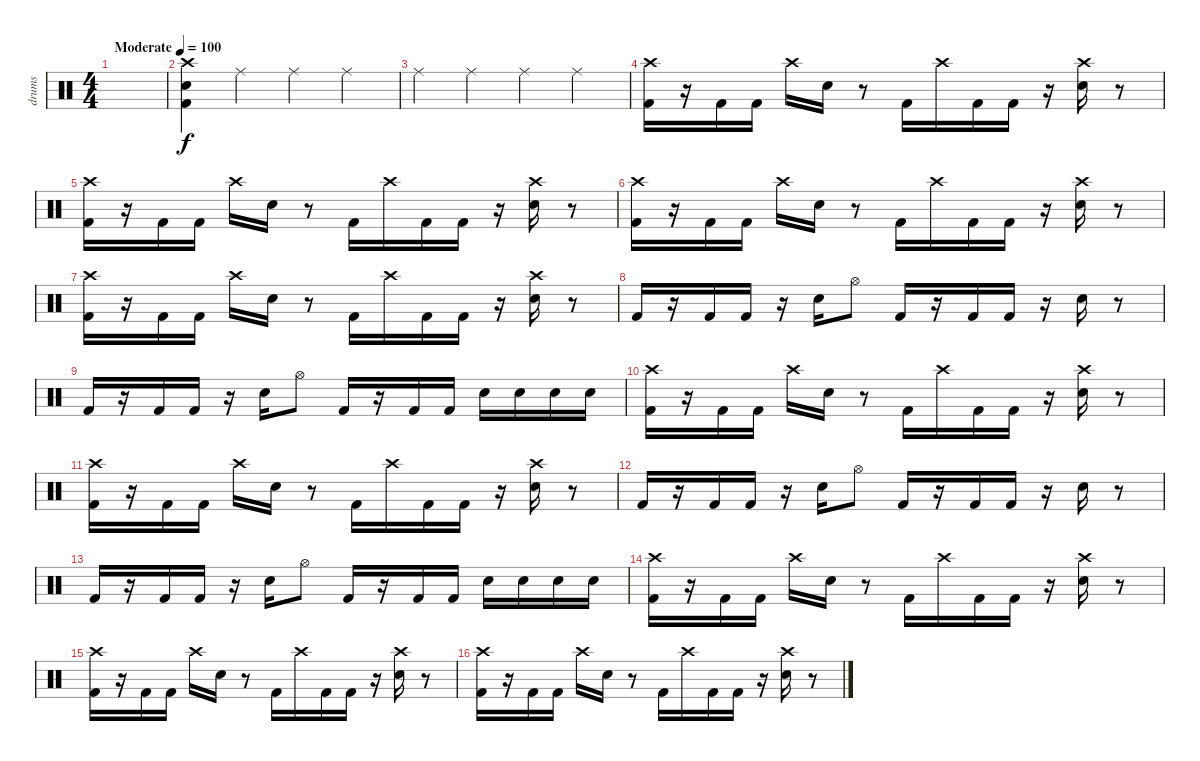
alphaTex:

\track ("drums" "drums") {instrument percussion}
\staff {score}
\articulation defaults
\ts (4 4)
\tempo (100 "Moderate")
\clef neutral
\ks c
|
("Crash high (hit)" "Electric Snare (hit)" "Kick (hit) 2").4 "Ride (middle)".4 "Ride (middle)".4 "Ride (middle)".4 |
"Ride (middle)".4 "Ride (middle)".4 "Ride (middle)".4 "Ride (middle)".4 |
("Crash high (hit)" "Kick (hit) 2").16 r.16 "Kick (hit) 2".16 "Kick (hit) 2".16 "Crash high (hit)".16 "Electric Snare (hit)".16 r.8 "Kick (hit) 2".16 "Crash high (hit)".16 "Kick (hit) 2".16 "Kick (hit) 2".16 r.16 ("Crash high (hit)" "Electric Snare (hit)").16 r.8 |
("Crash high (hit)" "Kick (hit) 2").16 r.16 "Kick (hit) 2".16 "Kick (hit) 2".16 "Crash high (hit)".16 "Electric Snare (hit)".16 r.8 "Kick (hit) 2".16 "Crash high (hit)".16 "Kick (hit) 2".16 "Kick (hit) 2".16 r.16 ("Crash high (hit)" "Electric Snare (hit)").16 r.8 |
("Crash high (hit)" "Kick (hit) 2").16 r.16 "Kick (hit) 2".16 "Kick (hit) 2".16 "Crash high (hit)".16 "Electric Snare (hit)".16 r.8 "Kick (hit) 2".16 "Crash high (hit)".16 "Kick (hit) 2".16 "Kick (hit) 2".16 r.16 ("Crash high (hit)" "Electric Snare (hit)").16 r.8 |
("Crash high (hit)" "Kick (hit) 2").16 r.16 "Kick (hit) 2".16 "Kick (hit) 2".16 "Crash high (hit)".16 "Electric Snare (hit)".16 r.8 "Kick (hit) 2".16 "Crash high (hit)".16 "Kick (hit) 2".16 "Kick (hit) 2".16 r.16 ("Crash high (hit)" "Electric Snare (hit)").16 r.8 |
"Kick (hit) 2".16 r.16 "Kick (hit) 2".16 "Kick (hit) 2".16 r.16 "Electric Snare (hit)".16 "Hi-Hat (open)".8 "Kick (hit) 2".16 r.16 "Kick (hit) 2".16 "Kick (hit) 2".16 r.16 "Electric Snare (hit)".16 r.8 |
"Kick (hit) 2".16 r.16 "Kick (hit) 2".16 "Kick (hit) 2".16 r.16 "Electric Snare (hit)".16 "Hi-Hat (open)".8 "Kick (hit) 2".16 r.16 "Kick (hit) 2".16 "Kick (hit) 2".16 "Electric Snare (hit)".16 "Electric Snare (hit)".16 "Electric Snare (hit)".16 "Electric Snare (hit)".16 |
("Crash high (hit)" "Kick (hit) 2").16 r.16 "Kick (hit) 2".16 "Kick (hit) 2".16 "Crash high (hit)".16 "Electric Snare (hit)".16 r.8 "Kick (hit) 2".16 "Crash high (hit)".16 "Kick (hit) 2".16 "Kick (hit) 2".16 r.16 ("Crash high (hit)" "Electric Snare (hit)").16 r.8 |
("Crash high (hit)" "Kick (hit) 2").16 r.16 "Kick (hit) 2".16 "Kick (hit) 2".16 "Crash high (hit)".16 "Electric Snare (hit)".16 r.8 "Kick (hit) 2".16 "Crash high (hit)".16 "Kick (hit) 2".16 "Kick (hit) 2".16 r.16 ("Crash high (hit)" "Electric Snare (hit)").16 r.8 |
"Kick (hit) 2".16 r.16 "Kick (hit) 2".16 "Kick (hit) 2".16 r.16 "Electric Snare (hit)".16 "Hi-Hat (open)".8 "Kick (hit) 2".16 r.16 "Kick (hit) 2".16 "Kick (hit) 2".16 r.16 "Electric Snare (hit)".16 r.8 |
"Kick (hit) 2".16 r.16 "Kick (hit) 2".16 "Kick (hit) 2".16 r.16 "Electric Snare (hit)".16 "Hi-Hat (open)".8 "Kick (hit) 2".16 r.16 "Kick (hit) 2".16 "Kick (hit) 2".16 "Electric Snare (hit)".16 "Electric Snare (hit)".16 "Electric Snare (hit)".16 "Electric Snare (hit)".16 |
("Crash high (hit)" "Kick (hit) 2").16 r.16 "Kick (hit) 2".16 "Kick (hit) 2".16 "Crash high (hit)".16 "Electric Snare (hit)".16 r.8 "Kick (hit) 2".16 "Crash high (hit)".16 "Kick (hit) 2".16 "Kick (hit) 2".16 r.16 ("Crash high (hit)" "Electric Snare (hit)").16 r.8 |
("Crash high (hit)" "Kick (hit) 2").16 r.16 "Kick (hit) 2".16 "Kick (hit) 2".16 "Crash high (hit)".16 "Electric Snare (hit)".16 r.8 "Kick (hit) 2".16 "Crash high (hit)".16 "Kick (hit) 2".16 "Kick (hit) 2".16 r.16 ("Crash high (hit)" "Electric Snare (hit)").16 r.8 |
("Crash high (hit)" "Kick (hit) 2").16 r.16 "Kick (hit) 2".16 "Kick (hit) 2".16 "Crash high (hit)".16 "Electric Snare (hit)".16 r.8 "Kick (hit) 2".16 "Crash high (hit)".16 "Kick (hit) 2".16 "Kick (hit) 2".16 r.16 ("Crash high (hit)" "Electric Snare (hit)").16 r.8
